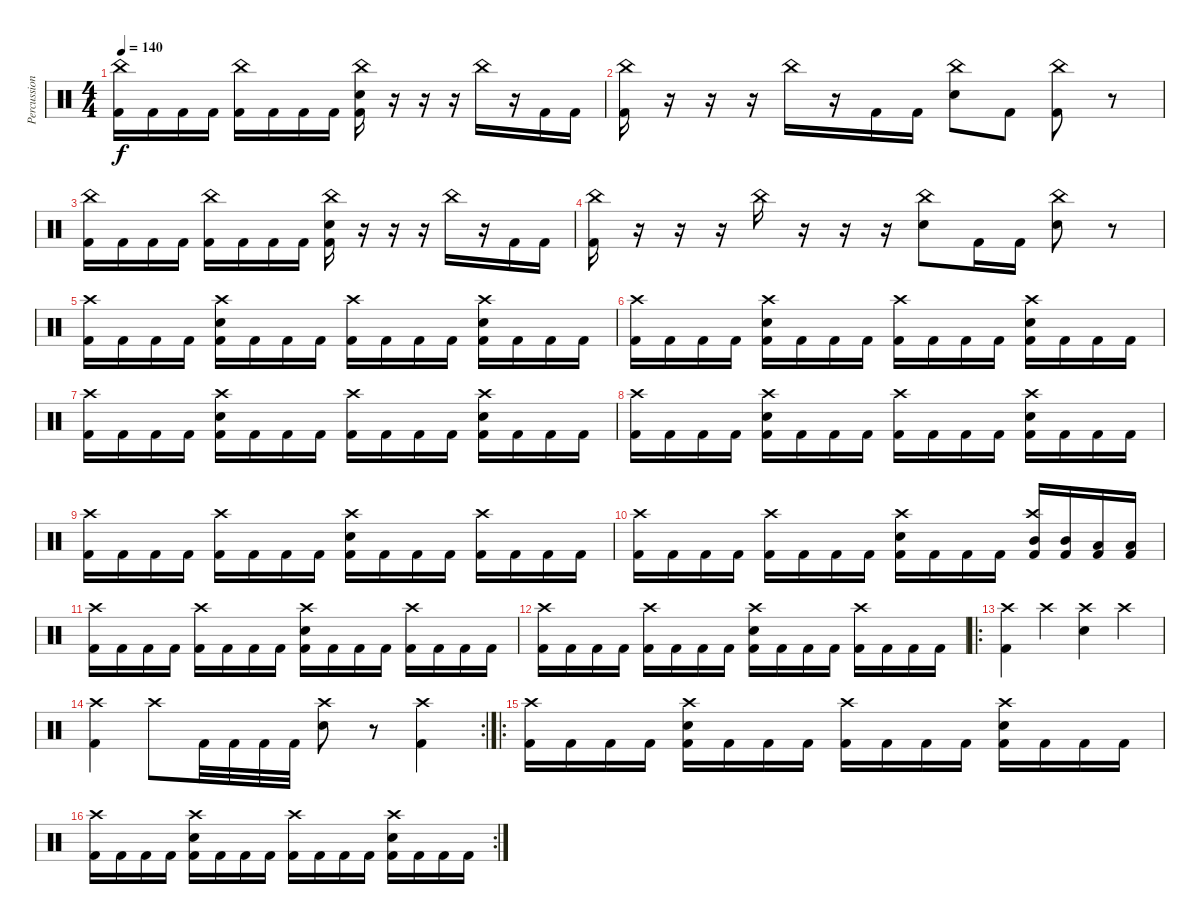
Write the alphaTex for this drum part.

\track ("Percussion" "Percussion") {instrument percussion}
\staff {score}
\articulation defaults
\ts (4 4)
\tempo 140
\clef neutral
\ks c
("China (hit)" "Kick (hit) 2").16{dy f} "Kick (hit) 2".16 "Kick (hit) 2".16 "Kick (hit) 2".16 ("China (hit)" "Kick (hit) 2").16 "Kick (hit) 2".16 "Kick (hit) 2".16 "Kick (hit) 2".16 ("China (hit)" "Snare (hit) 2" "Kick (hit) 2").16 r.16 r.16 r.16 "China (hit)".16 r.16 "Kick (hit) 2".16 "Kick (hit) 2".16 |
("China (hit)" "Kick (hit) 2").16 r.16 r.16 r.16 "China (hit)".16 r.16 "Kick (hit) 2".16 "Kick (hit) 2".16 ("China (hit)" "Snare (hit) 2").8 "Kick (hit) 2".8 ("China (hit)" "Kick (hit) 2").8 r.8 |
("China (hit)" "Kick (hit) 2").16 "Kick (hit) 2".16 "Kick (hit) 2".16 "Kick (hit) 2".16 ("China (hit)" "Kick (hit) 2").16 "Kick (hit) 2".16 "Kick (hit) 2".16 "Kick (hit) 2".16 ("China (hit)" "Snare (hit) 2" "Kick (hit) 2").16 r.16 r.16 r.16 "China (hit)".16 r.16 "Kick (hit) 2".16 "Kick (hit) 2".16 |
("China (hit)" "Kick (hit) 2").16 r.16 r.16 r.16 "China (hit)".16 r.16 r.16 r.16 ("China (hit)" "Snare (hit) 2").8 "Kick (hit) 2".16 "Kick (hit) 2".16 ("China (hit)" "Snare (hit) 2").8 r.8 |
("Crash high (hit)" "Kick (hit) 2").16 "Kick (hit) 2".16 "Kick (hit) 2".16 "Kick (hit) 2".16 ("Crash high (hit)" "Snare (hit) 2" "Kick (hit) 2").16 "Kick (hit) 2".16 "Kick (hit) 2".16 "Kick (hit) 2".16 ("Crash high (hit)" "Kick (hit) 2").16 "Kick (hit) 2".16 "Kick (hit) 2".16 "Kick (hit) 2".16 ("Crash high (hit)" "Snare (hit) 2" "Kick (hit) 2").16 "Kick (hit) 2".16 "Kick (hit) 2".16 "Kick (hit) 2".16 |
("Crash high (hit)" "Kick (hit) 2").16 "Kick (hit) 2".16 "Kick (hit) 2".16 "Kick (hit) 2".16 ("Crash high (hit)" "Snare (hit) 2" "Kick (hit) 2").16 "Kick (hit) 2".16 "Kick (hit) 2".16 "Kick (hit) 2".16 ("Crash high (hit)" "Kick (hit) 2").16 "Kick (hit) 2".16 "Kick (hit) 2".16 "Kick (hit) 2".16 ("Crash high (hit)" "Snare (hit) 2" "Kick (hit) 2").16 "Kick (hit) 2".16 "Kick (hit) 2".16 "Kick (hit) 2".16 |
("Crash high (hit)" "Kick (hit) 2").16 "Kick (hit) 2".16 "Kick (hit) 2".16 "Kick (hit) 2".16 ("Crash high (hit)" "Snare (hit) 2" "Kick (hit) 2").16 "Kick (hit) 2".16 "Kick (hit) 2".16 "Kick (hit) 2".16 ("Crash high (hit)" "Kick (hit) 2").16 "Kick (hit) 2".16 "Kick (hit) 2".16 "Kick (hit) 2".16 ("Crash high (hit)" "Snare (hit) 2" "Kick (hit) 2").16 "Kick (hit) 2".16 "Kick (hit) 2".16 "Kick (hit) 2".16 |
("Crash high (hit)" "Kick (hit) 2").16 "Kick (hit) 2".16 "Kick (hit) 2".16 "Kick (hit) 2".16 ("Crash high (hit)" "Snare (hit) 2" "Kick (hit) 2").16 "Kick (hit) 2".16 "Kick (hit) 2".16 "Kick (hit) 2".16 ("Crash high (hit)" "Kick (hit) 2").16 "Kick (hit) 2".16 "Kick (hit) 2".16 "Kick (hit) 2".16 ("Crash high (hit)" "Snare (hit) 2" "Kick (hit) 2").16 "Kick (hit) 2".16 "Kick (hit) 2".16 "Kick (hit) 2".16 |
("Crash high (hit)" "Kick (hit) 2").16 "Kick (hit) 2".16 "Kick (hit) 2".16 "Kick (hit) 2".16 ("Crash high (hit)" "Kick (hit) 2").16 "Kick (hit) 2".16 "Kick (hit) 2".16 "Kick (hit) 2".16 ("Crash high (hit)" "Snare (hit) 2" "Kick (hit) 2").16 "Kick (hit) 2".16 "Kick (hit) 2".16 "Kick (hit) 2".16 ("Crash high (hit)" "Kick (hit) 2").16 "Kick (hit) 2".16 "Kick (hit) 2".16 "Kick (hit) 2".16 |
("Crash high (hit)" "Kick (hit) 2").16 "Kick (hit) 2".16 "Kick (hit) 2".16 "Kick (hit) 2".16 ("Crash high (hit)" "Kick (hit) 2").16 "Kick (hit) 2".16 "Kick (hit) 2".16 "Kick (hit) 2".16 ("Crash high (hit)" "Snare (hit) 2" "Kick (hit) 2").16 "Kick (hit) 2".16 "Kick (hit) 2".16 "Kick (hit) 2".16 ("Crash high (hit)" "Mid Tom (hit)" "Kick (hit) 2").16 ("Mid Tom (hit)" "Kick (hit) 2").16 ("Low Tom (hit)" "Kick (hit) 2").16 ("Low Tom (hit)" "Kick (hit) 2").16 |
("Crash high (hit)" "Kick (hit) 2").16 "Kick (hit) 2".16 "Kick (hit) 2".16 "Kick (hit) 2".16 ("Crash high (hit)" "Kick (hit) 2").16 "Kick (hit) 2".16 "Kick (hit) 2".16 "Kick (hit) 2".16 ("Crash high (hit)" "Snare (hit) 2" "Kick (hit) 2").16 "Kick (hit) 2".16 "Kick (hit) 2".16 "Kick (hit) 2".16 ("Crash high (hit)" "Kick (hit) 2").16 "Kick (hit) 2".16 "Kick (hit) 2".16 "Kick (hit) 2".16 |
("Crash high (hit)" "Kick (hit) 2").16 "Kick (hit) 2".16 "Kick (hit) 2".16 "Kick (hit) 2".16 ("Crash high (hit)" "Kick (hit) 2").16 "Kick (hit) 2".16 "Kick (hit) 2".16 "Kick (hit) 2".16 ("Crash high (hit)" "Snare (hit) 2" "Kick (hit) 2").16 "Kick (hit) 2".16 "Kick (hit) 2".16 "Kick (hit) 2".16 ("Crash high (hit)" "Kick (hit) 2").16 "Kick (hit) 2".16 "Kick (hit) 2".16 "Kick (hit) 2".16 |
\ro
("Crash high (hit)" "Kick (hit) 2").4 "Crash high (hit)".4 ("Crash high (hit)" "Snare (hit) 2").4 "Crash high (hit)".4 |
\rc 2
("Crash high (hit)" "Kick (hit) 2").4 "Crash high (hit)".8 "Kick (hit) 2".32 "Kick (hit) 2".32 "Kick (hit) 2".32 "Kick (hit) 2".32 ("Crash high (hit)" "Snare (hit) 2").8 r.8 ("Crash high (hit)" "Kick (hit) 2").4 |
\ro
("Crash high (hit)" "Kick (hit) 2").16 "Kick (hit) 2".16 "Kick (hit) 2".16 "Kick (hit) 2".16 ("Crash high (hit)" "Snare (hit) 2" "Kick (hit) 2").16 "Kick (hit) 2".16 "Kick (hit) 2".16 "Kick (hit) 2".16 ("Crash high (hit)" "Kick (hit) 2").16 "Kick (hit) 2".16 "Kick (hit) 2".16 "Kick (hit) 2".16 ("Crash high (hit)" "Snare (hit) 2" "Kick (hit) 2").16 "Kick (hit) 2".16 "Kick (hit) 2".16 "Kick (hit) 2".16 |
\rc 2
("Crash high (hit)" "Kick (hit) 2").16 "Kick (hit) 2".16 "Kick (hit) 2".16 "Kick (hit) 2".16 ("Crash high (hit)" "Snare (hit) 2" "Kick (hit) 2").16 "Kick (hit) 2".16 "Kick (hit) 2".16 "Kick (hit) 2".16 ("Crash high (hit)" "Kick (hit) 2").16 "Kick (hit) 2".16 "Kick (hit) 2".16 "Kick (hit) 2".16 ("Crash high (hit)" "Snare (hit) 2" "Kick (hit) 2").16 "Kick (hit) 2".16 "Kick (hit) 2".16 "Kick (hit) 2".16
